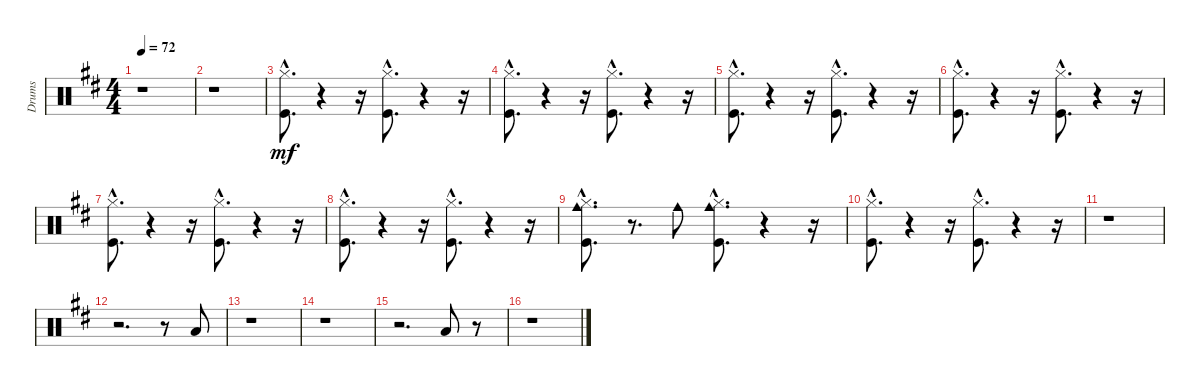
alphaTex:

\track ("Drums" "Drums") {instrument percussion}
\staff {score}
\articulation defaults
\ts (4 4)
\tempo 72
\clef neutral
\ks d
r.1{dy mf} |
r.1 |
("Kick (hit)"{hac} "Hi-Hat (closed)"{hac}).8{d} r.4 r.16 ("Kick (hit)"{hac} "Hi-Hat (closed)"{hac}).8{d} r.4 r.16 |
("Kick (hit)"{hac} "Hi-Hat (closed)"{hac}).8{d} r.4 r.16 ("Kick (hit)"{hac} "Hi-Hat (closed)"{hac}).8{d} r.4 r.16 |
("Kick (hit)"{hac} "Hi-Hat (closed)"{hac}).8{d} r.4 r.16 ("Kick (hit)"{hac} "Hi-Hat (closed)"{hac}).8{d} r.4 r.16 |
("Kick (hit)"{hac} "Hi-Hat (closed)"{hac}).8{d} r.4 r.16 ("Kick (hit)"{hac} "Hi-Hat (closed)"{hac}).8{d} r.4 r.16 |
("Kick (hit)"{hac} "Hi-Hat (closed)"{hac}).8{d} r.4 r.16 ("Kick (hit)"{hac} "Hi-Hat (closed)"{hac}).8{d} r.4 r.16 |
("Kick (hit)"{hac} "Hi-Hat (closed)"{hac}).8{d} r.4 r.16 ("Kick (hit)"{hac} "Hi-Hat (closed)"{hac}).8{d} r.4 r.16 |
("Kick (hit)"{hac} "Hi-Hat (closed)"{hac} "Cowbell medium (hit)"{hac}).8{d} r.8{d} "Cowbell medium (hit)".8 ("Kick (hit)"{hac} "Hi-Hat (closed)"{hac} "Cowbell medium (hit)"{hac}).8{d} r.4 r.16 |
("Kick (hit)"{hac} "Hi-Hat (closed)"{hac}).8{d} r.4 r.16 ("Kick (hit)"{hac} "Hi-Hat (closed)"{hac}).8{d} r.4 r.16 |
r.1 |
r.2{d} r.8 "Low Floor Tom (hit)".8 |
r.1 |
r.1 |
r.2{d} "Low Floor Tom (hit)".8 r.8 |
r.1
